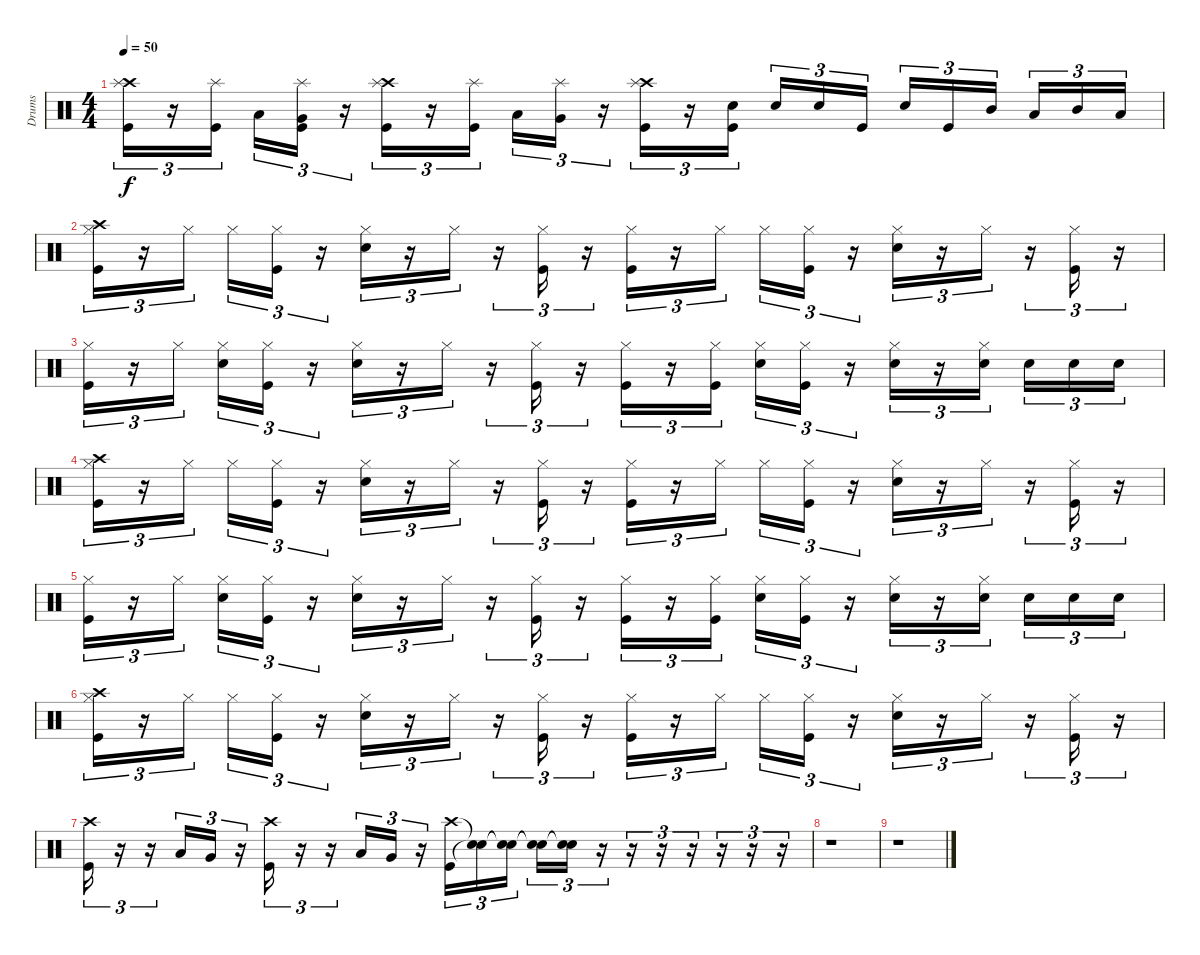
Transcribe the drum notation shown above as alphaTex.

\track ("Drums" "Drums") {instrument percussion}
\staff {score}
\articulation defaults
\ts (4 4)
\tempo 50
\clef neutral
\ks c
("Crash high (hit)" "Splash (hit)" "Kick (hit)").16{tu (3 2) dy f} r.16{tu (3 2)} ("Splash (hit)" "Kick (hit)").16{tu (3 2)} "Low Tom (hit)".16{tu (3 2)} ("Splash (hit)" "Very Low Tom (hit)" "Kick (hit)").16{tu (3 2)} r.16{tu (3 2)} ("Crash high (hit)" "Splash (hit)" "Kick (hit)").16{tu (3 2)} r.16{tu (3 2)} ("Splash (hit)" "Kick (hit)").16{tu (3 2)} "Low Tom (hit)".16{tu (3 2)} ("Splash (hit)" "Very Low Tom (hit)").16{tu (3 2)} r.16{tu (3 2)} ("Crash high (hit)" "Splash (hit)" "Kick (hit)").16{tu (3 2)} r.16{tu (3 2)} ("Snare (hit) 2" "Kick (hit)").16{tu (3 2)} "Snare (hit) 2".16{tu (3 2)} "Snare (hit) 2".16{tu (3 2)} "Kick (hit)".16{tu (3 2)} "Snare (hit) 2".16{tu (3 2)} "Kick (hit)".16{tu (3 2)} "Mid Tom (hit)".16{tu (3 2)} "Low Tom (hit)".16{tu (3 2)} "Mid Tom (hit)".16{tu (3 2)} "Low Tom (hit)".16{tu (3 2)} |
("Hi-Hat (closed)" "Crash high (hit)" "Kick (hit)").16{tu (3 2)} r.16{tu (3 2)} "Hi-Hat (closed)".16{tu (3 2)} "Hi-Hat (closed)".16{tu (3 2)} ("Hi-Hat (closed)" "Kick (hit)").16{tu (3 2)} r.16{tu (3 2)} ("Hi-Hat (closed)" "Electric Snare (hit)").16{tu (3 2)} r.16{tu (3 2)} "Hi-Hat (closed)".16{tu (3 2)} r.16{tu (3 2)} ("Hi-Hat (closed)" "Kick (hit)").16{tu (3 2)} r.16{tu (3 2)} ("Hi-Hat (closed)" "Kick (hit)").16{tu (3 2)} r.16{tu (3 2)} "Hi-Hat (closed)".16{tu (3 2)} "Hi-Hat (closed)".16{tu (3 2)} ("Hi-Hat (closed)" "Kick (hit)").16{tu (3 2)} r.16{tu (3 2)} ("Hi-Hat (closed)" "Electric Snare (hit)").16{tu (3 2)} r.16{tu (3 2)} "Hi-Hat (closed)".16{tu (3 2)} r.16{tu (3 2)} ("Hi-Hat (closed)" "Kick (hit)").16{tu (3 2)} r.16{tu (3 2)} |
("Hi-Hat (closed)" "Kick (hit)").16{tu (3 2)} r.16{tu (3 2)} "Hi-Hat (closed)".16{tu (3 2)} ("Hi-Hat (closed)" "Snare (hit) 2").16{tu (3 2)} ("Hi-Hat (closed)" "Kick (hit)").16{tu (3 2)} r.16{tu (3 2)} ("Hi-Hat (closed)" "Electric Snare (hit)").16{tu (3 2)} r.16{tu (3 2)} "Hi-Hat (closed)".16{tu (3 2)} r.16{tu (3 2)} ("Hi-Hat (closed)" "Kick (hit)").16{tu (3 2)} r.16{tu (3 2)} ("Hi-Hat (closed)" "Kick (hit)").16{tu (3 2)} r.16{tu (3 2)} ("Hi-Hat (closed)" "Kick (hit)").16{tu (3 2)} ("Hi-Hat (closed)" "Snare (hit) 2").16{tu (3 2)} ("Hi-Hat (closed)" "Kick (hit)").16{tu (3 2)} r.16{tu (3 2)} ("Hi-Hat (closed)" "Electric Snare (hit)").16{tu (3 2)} r.16{tu (3 2)} ("Hi-Hat (closed)" "Snare (hit) 2").16{tu (3 2)} "Snare (hit) 2".16{tu (3 2)} "Snare (hit) 2".16{tu (3 2)} "Snare (hit) 2".16{tu (3 2)} |
("Hi-Hat (closed)" "Crash high (hit)" "Kick (hit)").16{tu (3 2)} r.16{tu (3 2)} "Hi-Hat (closed)".16{tu (3 2)} "Hi-Hat (closed)".16{tu (3 2)} ("Hi-Hat (closed)" "Kick (hit)").16{tu (3 2)} r.16{tu (3 2)} ("Hi-Hat (closed)" "Electric Snare (hit)").16{tu (3 2)} r.16{tu (3 2)} "Hi-Hat (closed)".16{tu (3 2)} r.16{tu (3 2)} ("Hi-Hat (closed)" "Kick (hit)").16{tu (3 2)} r.16{tu (3 2)} ("Hi-Hat (closed)" "Kick (hit)").16{tu (3 2)} r.16{tu (3 2)} "Hi-Hat (closed)".16{tu (3 2)} "Hi-Hat (closed)".16{tu (3 2)} ("Hi-Hat (closed)" "Kick (hit)").16{tu (3 2)} r.16{tu (3 2)} ("Hi-Hat (closed)" "Electric Snare (hit)").16{tu (3 2)} r.16{tu (3 2)} "Hi-Hat (closed)".16{tu (3 2)} r.16{tu (3 2)} ("Hi-Hat (closed)" "Kick (hit)").16{tu (3 2)} r.16{tu (3 2)} |
("Hi-Hat (closed)" "Kick (hit)").16{tu (3 2)} r.16{tu (3 2)} "Hi-Hat (closed)".16{tu (3 2)} ("Hi-Hat (closed)" "Snare (hit) 2").16{tu (3 2)} ("Hi-Hat (closed)" "Kick (hit)").16{tu (3 2)} r.16{tu (3 2)} ("Hi-Hat (closed)" "Electric Snare (hit)").16{tu (3 2)} r.16{tu (3 2)} "Hi-Hat (closed)".16{tu (3 2)} r.16{tu (3 2)} ("Hi-Hat (closed)" "Kick (hit)").16{tu (3 2)} r.16{tu (3 2)} ("Hi-Hat (closed)" "Kick (hit)").16{tu (3 2)} r.16{tu (3 2)} ("Hi-Hat (closed)" "Kick (hit)").16{tu (3 2)} ("Hi-Hat (closed)" "Snare (hit) 2").16{tu (3 2)} ("Hi-Hat (closed)" "Kick (hit)").16{tu (3 2)} r.16{tu (3 2)} ("Hi-Hat (closed)" "Electric Snare (hit)").16{tu (3 2)} r.16{tu (3 2)} ("Hi-Hat (closed)" "Snare (hit) 2").16{tu (3 2)} "Snare (hit) 2".16{tu (3 2)} "Snare (hit) 2".16{tu (3 2)} "Snare (hit) 2".16{tu (3 2)} |
("Hi-Hat (closed)" "Crash high (hit)" "Kick (hit)").16{tu (3 2)} r.16{tu (3 2)} "Hi-Hat (closed)".16{tu (3 2)} "Hi-Hat (closed)".16{tu (3 2)} ("Hi-Hat (closed)" "Kick (hit)").16{tu (3 2)} r.16{tu (3 2)} ("Hi-Hat (closed)" "Electric Snare (hit)").16{tu (3 2)} r.16{tu (3 2)} "Hi-Hat (closed)".16{tu (3 2)} r.16{tu (3 2)} ("Hi-Hat (closed)" "Kick (hit)").16{tu (3 2)} r.16{tu (3 2)} ("Hi-Hat (closed)" "Kick (hit)").16{tu (3 2)} r.16{tu (3 2)} "Hi-Hat (closed)".16{tu (3 2)} "Hi-Hat (closed)".16{tu (3 2)} ("Hi-Hat (closed)" "Kick (hit)").16{tu (3 2)} r.16{tu (3 2)} ("Hi-Hat (closed)" "Electric Snare (hit)").16{tu (3 2)} r.16{tu (3 2)} "Hi-Hat (closed)".16{tu (3 2)} r.16{tu (3 2)} ("Hi-Hat (closed)" "Kick (hit)").16{tu (3 2)} r.16{tu (3 2)} |
("Crash high (hit)" "Kick (hit)").16{tu (3 2)} r.16{tu (3 2)} r.16{tu (3 2)} "Low Tom (hit)".16{tu (3 2)} "Very Low Tom (hit)".16{tu (3 2)} r.16{tu (3 2)} ("Crash high (hit)" "Kick (hit)").16{tu (3 2)} r.16{tu (3 2)} r.16{tu (3 2)} "Low Tom (hit)".16{tu (3 2)} "Very Low Tom (hit)".16{tu (3 2)} r.16{tu (3 2)} ("Crash high (hit)" "Kick (hit)").16{tu (3 2)} ("Snare (hit)"{t} "Snare (hit)"{t}).16{tu (3 2)} ("Snare (hit)"{t} "Snare (hit)"{t}).16{tu (3 2)} ("Snare (hit)"{t} "Snare (hit)"{t}).16{tu (3 2)} ("Snare (hit)"{t} "Snare (hit)"{t}).16{tu (3 2)} r.16{tu (3 2)} r.16{tu (3 2)} r.16{tu (3 2)} r.16{tu (3 2)} r.16{tu (3 2)} r.16{tu (3 2)} r.16{tu (3 2)} |
r.1 |
r.1
